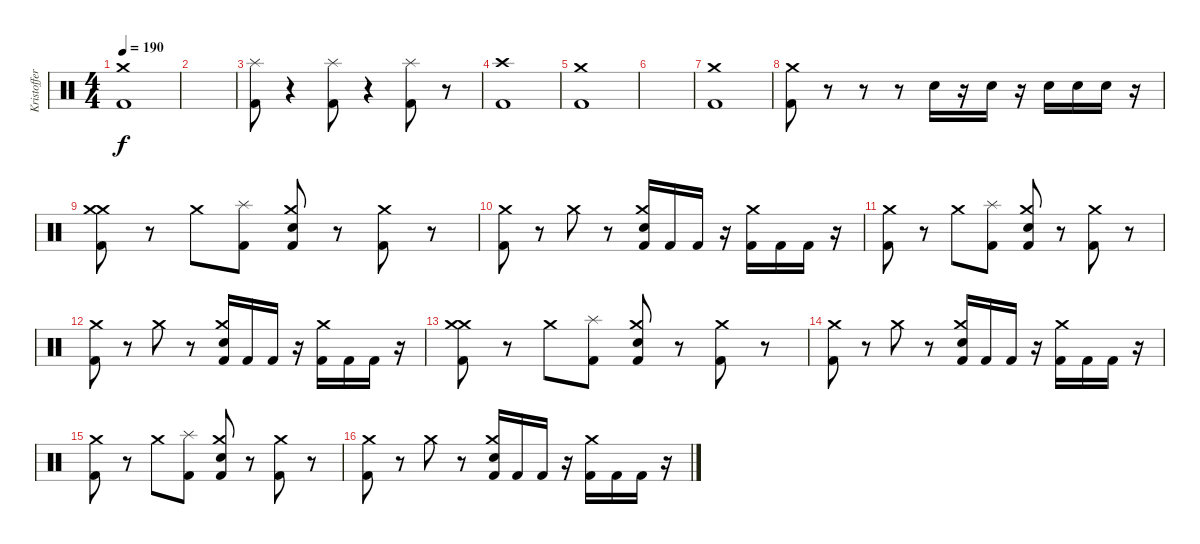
\track ("Kristoffer (Drums)" "Kristoffer") {instrument percussion}
\staff {score}
\articulation defaults
\ts (4 4)
\tempo 190
\clef neutral
\ks c
("Kick (hit) 2" "Crash medium (hit)").1{dy f} |
|
("Kick (hit) 2" "Splash (hit)").8 r.4 ("Kick (hit) 2" "Splash (hit)").8 r.4 ("Kick (hit) 2" "Splash (hit)").8 r.8 |
("Kick (hit) 2" "Crash high (hit)").1 |
("Kick (hit) 2" "Crash medium (hit)").1 |
|
("Kick (hit) 2" "Crash medium (hit)").1 |
("Kick (hit) 2" "Crash medium (hit)").8 r.8 r.8 r.8 "Electric Snare (hit)".16 r.16 "Electric Snare (hit)".16 r.16 "Electric Snare (hit)".16 "Electric Snare (hit)".16 "Electric Snare (hit)".16 r.16 |
("Kick (hit) 2" "Crash medium (hit)" "Crash medium (hit)").8 r.8 "Crash medium (hit)".8 ("Kick (hit) 2" "Splash (hit)").8 ("Kick (hit) 2" "Electric Snare (hit)" "Crash medium (hit)").8 r.8 ("Kick (hit) 2" "Crash medium (hit)").8 r.8 |
("Kick (hit) 2" "Crash medium (hit)").8 r.8 "Crash medium (hit)".8 r.8 ("Kick (hit) 2" "Electric Snare (hit)" "Crash medium (hit)").16 "Kick (hit) 2".16 "Kick (hit) 2".16 r.16 ("Kick (hit) 2" "Crash medium (hit)").16 "Kick (hit) 2".16 "Kick (hit) 2".16 r.16 |
("Kick (hit) 2" "Crash medium (hit)").8 r.8 "Crash medium (hit)".8 ("Kick (hit) 2" "Splash (hit)").8 ("Kick (hit) 2" "Electric Snare (hit)" "Crash medium (hit)").8 r.8 ("Kick (hit) 2" "Crash medium (hit)").8 r.8 |
("Kick (hit) 2" "Crash medium (hit)").8 r.8 "Crash medium (hit)".8 r.8 ("Kick (hit) 2" "Electric Snare (hit)" "Crash medium (hit)").16 "Kick (hit) 2".16 "Kick (hit) 2".16 r.16 ("Kick (hit) 2" "Crash medium (hit)").16 "Kick (hit) 2".16 "Kick (hit) 2".16 r.16 |
("Kick (hit) 2" "Crash medium (hit)" "Crash medium (hit)").8 r.8 "Crash medium (hit)".8 ("Kick (hit) 2" "Splash (hit)").8 ("Kick (hit) 2" "Electric Snare (hit)" "Crash medium (hit)").8 r.8 ("Kick (hit) 2" "Crash medium (hit)").8 r.8 |
("Kick (hit) 2" "Crash medium (hit)").8 r.8 "Crash medium (hit)".8 r.8 ("Kick (hit) 2" "Electric Snare (hit)" "Crash medium (hit)").16 "Kick (hit) 2".16 "Kick (hit) 2".16 r.16 ("Kick (hit) 2" "Crash medium (hit)").16 "Kick (hit) 2".16 "Kick (hit) 2".16 r.16 |
("Kick (hit) 2" "Crash medium (hit)").8 r.8 "Crash medium (hit)".8 ("Kick (hit) 2" "Splash (hit)").8 ("Kick (hit) 2" "Electric Snare (hit)" "Crash medium (hit)").8 r.8 ("Kick (hit) 2" "Crash medium (hit)").8 r.8 |
("Kick (hit) 2" "Crash medium (hit)").8 r.8 "Crash medium (hit)".8 r.8 ("Kick (hit) 2" "Electric Snare (hit)" "Crash medium (hit)").16 "Kick (hit) 2".16 "Kick (hit) 2".16 r.16 ("Kick (hit) 2" "Crash medium (hit)").16 "Kick (hit) 2".16 "Kick (hit) 2".16 r.16
